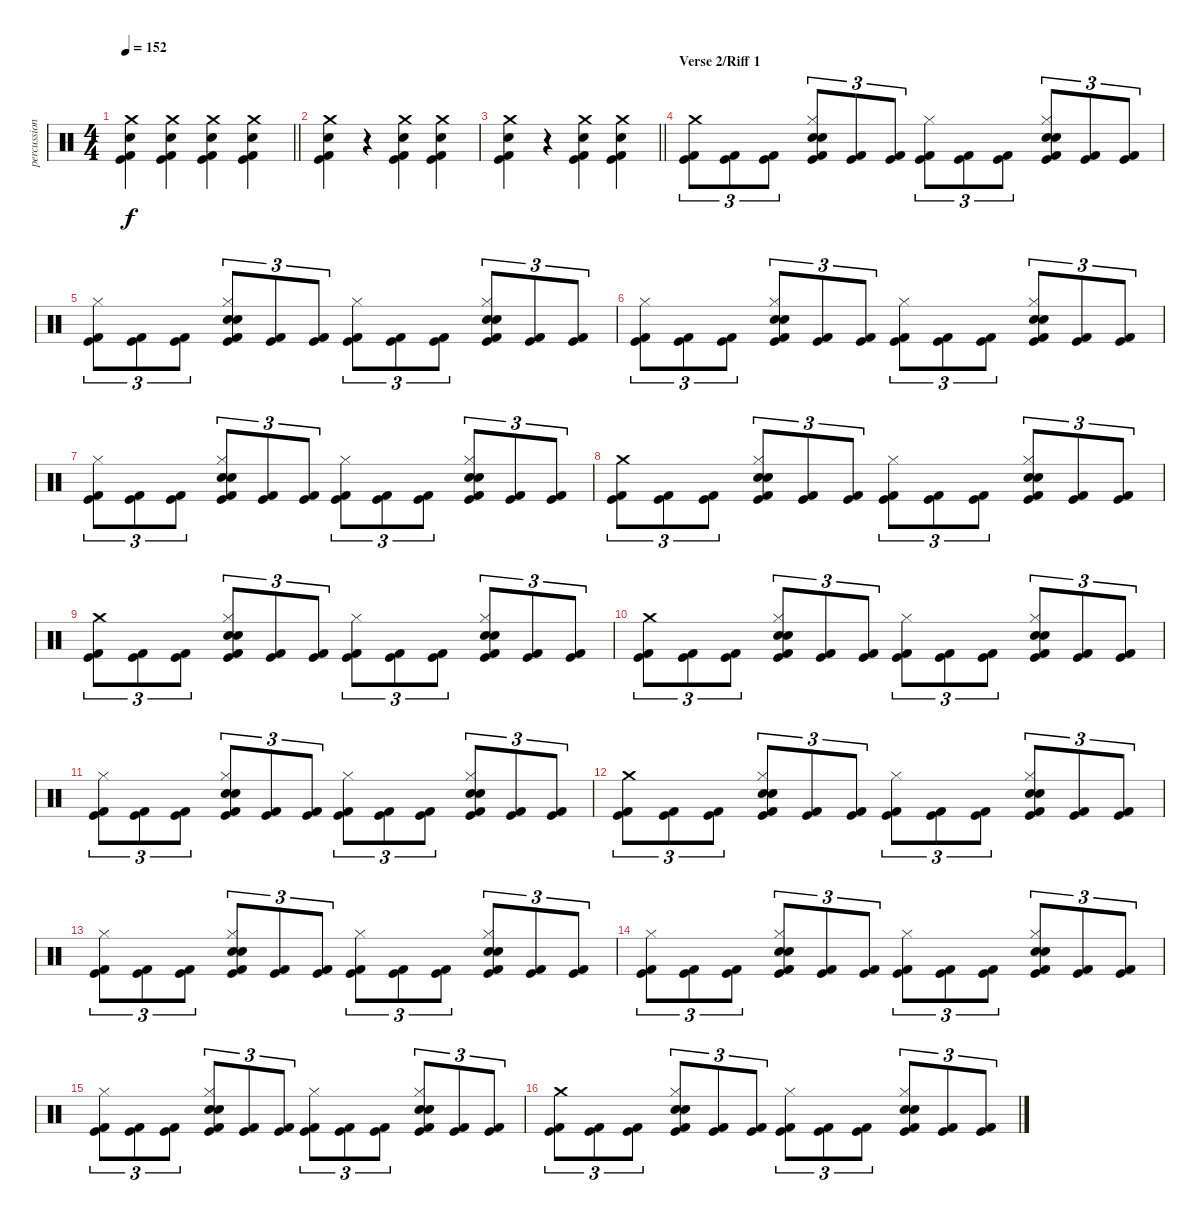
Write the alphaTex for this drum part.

\track ("percussion" "percussion") {instrument percussion}
\staff {score}
\articulation defaults
\ts (4 4)
\tempo 152
\clef neutral
\barLineRight lightlight
\ks c
("Crash medium (hit)" "Electric Snare (hit)" "Kick (hit) 2" "Kick (hit)").4{dy f} ("Crash medium (hit)" "Electric Snare (hit)" "Kick (hit) 2" "Kick (hit)").4 ("Crash medium (hit)" "Electric Snare (hit)" "Kick (hit) 2" "Kick (hit)").4 ("Crash medium (hit)" "Electric Snare (hit)" "Kick (hit) 2" "Kick (hit)").4 |
("Crash medium (hit)" "Electric Snare (hit)" "Kick (hit)" "Kick (hit) 2").4 r.4 ("Crash medium (hit)" "Electric Snare (hit)" "Kick (hit)" "Kick (hit) 2").4 ("Crash medium (hit)" "Electric Snare (hit)" "Kick (hit)" "Kick (hit) 2").4 |
\barLineRight lightlight
("Crash medium (hit)" "Electric Snare (hit)" "Kick (hit)" "Kick (hit) 2").4 r.4 ("Crash medium (hit)" "Electric Snare (hit)" "Kick (hit) 2" "Kick (hit)").4 ("Crash medium (hit)" "Electric Snare (hit)" "Kick (hit) 2" "Kick (hit)").4 |
\section ("" "Verse 2/Riff 1")
("Crash medium (hit)" "Kick (hit)" "Kick (hit) 2").8{tu (3 2)} ("Kick (hit)" "Kick (hit) 2").8{tu (3 2)} ("Kick (hit)" "Kick (hit) 2").8{tu (3 2)} ("Hi-Hat (closed)" "Electric Snare (hit)" "Snare (hit) 2" "Kick (hit)" "Kick (hit) 2").8{tu (3 2)} ("Kick (hit)" "Kick (hit) 2").8{tu (3 2)} ("Kick (hit)" "Kick (hit) 2").8{tu (3 2)} ("Hi-Hat (closed)" "Kick (hit)" "Kick (hit) 2").8{tu (3 2)} ("Kick (hit)" "Kick (hit) 2").8{tu (3 2)} ("Kick (hit)" "Kick (hit) 2").8{tu (3 2)} ("Hi-Hat (closed)" "Electric Snare (hit)" "Snare (hit) 2" "Kick (hit)" "Kick (hit) 2").8{tu (3 2)} ("Kick (hit)" "Kick (hit) 2").8{tu (3 2)} ("Kick (hit)" "Kick (hit) 2").8{tu (3 2)} |
("Hi-Hat (closed)" "Kick (hit)" "Kick (hit) 2").8{tu (3 2)} ("Kick (hit)" "Kick (hit) 2").8{tu (3 2)} ("Kick (hit)" "Kick (hit) 2").8{tu (3 2)} ("Hi-Hat (closed)" "Electric Snare (hit)" "Snare (hit) 2" "Kick (hit)" "Kick (hit) 2").8{tu (3 2)} ("Kick (hit)" "Kick (hit) 2").8{tu (3 2)} ("Kick (hit)" "Kick (hit) 2").8{tu (3 2)} ("Hi-Hat (closed)" "Kick (hit)" "Kick (hit) 2").8{tu (3 2)} ("Kick (hit)" "Kick (hit) 2").8{tu (3 2)} ("Kick (hit)" "Kick (hit) 2").8{tu (3 2)} ("Hi-Hat (closed)" "Electric Snare (hit)" "Snare (hit) 2" "Kick (hit)" "Kick (hit) 2").8{tu (3 2)} ("Kick (hit)" "Kick (hit) 2").8{tu (3 2)} ("Kick (hit)" "Kick (hit) 2").8{tu (3 2)} |
("Hi-Hat (closed)" "Kick (hit)" "Kick (hit) 2").8{tu (3 2)} ("Kick (hit)" "Kick (hit) 2").8{tu (3 2)} ("Kick (hit)" "Kick (hit) 2").8{tu (3 2)} ("Hi-Hat (closed)" "Electric Snare (hit)" "Snare (hit) 2" "Kick (hit)" "Kick (hit) 2").8{tu (3 2)} ("Kick (hit)" "Kick (hit) 2").8{tu (3 2)} ("Kick (hit)" "Kick (hit) 2").8{tu (3 2)} ("Hi-Hat (closed)" "Kick (hit)" "Kick (hit) 2").8{tu (3 2)} ("Kick (hit)" "Kick (hit) 2").8{tu (3 2)} ("Kick (hit)" "Kick (hit) 2").8{tu (3 2)} ("Hi-Hat (closed)" "Electric Snare (hit)" "Snare (hit) 2" "Kick (hit)" "Kick (hit) 2").8{tu (3 2)} ("Kick (hit)" "Kick (hit) 2").8{tu (3 2)} ("Kick (hit)" "Kick (hit) 2").8{tu (3 2)} |
("Hi-Hat (closed)" "Kick (hit)" "Kick (hit) 2").8{tu (3 2)} ("Kick (hit)" "Kick (hit) 2").8{tu (3 2)} ("Kick (hit)" "Kick (hit) 2").8{tu (3 2)} ("Hi-Hat (closed)" "Electric Snare (hit)" "Snare (hit) 2" "Kick (hit)" "Kick (hit) 2").8{tu (3 2)} ("Kick (hit)" "Kick (hit) 2").8{tu (3 2)} ("Kick (hit)" "Kick (hit) 2").8{tu (3 2)} ("Hi-Hat (closed)" "Kick (hit)" "Kick (hit) 2").8{tu (3 2)} ("Kick (hit)" "Kick (hit) 2").8{tu (3 2)} ("Kick (hit)" "Kick (hit) 2").8{tu (3 2)} ("Hi-Hat (closed)" "Electric Snare (hit)" "Snare (hit) 2" "Kick (hit)" "Kick (hit) 2").8{tu (3 2)} ("Kick (hit)" "Kick (hit) 2").8{tu (3 2)} ("Kick (hit)" "Kick (hit) 2").8{tu (3 2)} |
("Crash medium (hit)" "Kick (hit)" "Kick (hit) 2").8{tu (3 2)} ("Kick (hit)" "Kick (hit) 2").8{tu (3 2)} ("Kick (hit)" "Kick (hit) 2").8{tu (3 2)} ("Hi-Hat (closed)" "Electric Snare (hit)" "Snare (hit) 2" "Kick (hit)" "Kick (hit) 2").8{tu (3 2)} ("Kick (hit)" "Kick (hit) 2").8{tu (3 2)} ("Kick (hit)" "Kick (hit) 2").8{tu (3 2)} ("Hi-Hat (closed)" "Kick (hit)" "Kick (hit) 2").8{tu (3 2)} ("Kick (hit)" "Kick (hit) 2").8{tu (3 2)} ("Kick (hit)" "Kick (hit) 2").8{tu (3 2)} ("Hi-Hat (closed)" "Electric Snare (hit)" "Snare (hit) 2" "Kick (hit)" "Kick (hit) 2").8{tu (3 2)} ("Kick (hit)" "Kick (hit) 2").8{tu (3 2)} ("Kick (hit)" "Kick (hit) 2").8{tu (3 2)} |
("Crash medium (hit)" "Kick (hit)" "Kick (hit) 2").8{tu (3 2)} ("Kick (hit)" "Kick (hit) 2").8{tu (3 2)} ("Kick (hit)" "Kick (hit) 2").8{tu (3 2)} ("Hi-Hat (closed)" "Electric Snare (hit)" "Snare (hit) 2" "Kick (hit)" "Kick (hit) 2").8{tu (3 2)} ("Kick (hit)" "Kick (hit) 2").8{tu (3 2)} ("Kick (hit)" "Kick (hit) 2").8{tu (3 2)} ("Hi-Hat (closed)" "Kick (hit)" "Kick (hit) 2").8{tu (3 2)} ("Kick (hit)" "Kick (hit) 2").8{tu (3 2)} ("Kick (hit)" "Kick (hit) 2").8{tu (3 2)} ("Hi-Hat (closed)" "Electric Snare (hit)" "Snare (hit) 2" "Kick (hit)" "Kick (hit) 2").8{tu (3 2)} ("Kick (hit)" "Kick (hit) 2").8{tu (3 2)} ("Kick (hit)" "Kick (hit) 2").8{tu (3 2)} |
("Crash medium (hit)" "Kick (hit)" "Kick (hit) 2").8{tu (3 2)} ("Kick (hit)" "Kick (hit) 2").8{tu (3 2)} ("Kick (hit)" "Kick (hit) 2").8{tu (3 2)} ("Hi-Hat (closed)" "Electric Snare (hit)" "Snare (hit) 2" "Kick (hit)" "Kick (hit) 2").8{tu (3 2)} ("Kick (hit)" "Kick (hit) 2").8{tu (3 2)} ("Kick (hit)" "Kick (hit) 2").8{tu (3 2)} ("Hi-Hat (closed)" "Kick (hit)" "Kick (hit) 2").8{tu (3 2)} ("Kick (hit)" "Kick (hit) 2").8{tu (3 2)} ("Kick (hit)" "Kick (hit) 2").8{tu (3 2)} ("Hi-Hat (closed)" "Electric Snare (hit)" "Snare (hit) 2" "Kick (hit)" "Kick (hit) 2").8{tu (3 2)} ("Kick (hit)" "Kick (hit) 2").8{tu (3 2)} ("Kick (hit)" "Kick (hit) 2").8{tu (3 2)} |
("Hi-Hat (closed)" "Kick (hit)" "Kick (hit) 2").8{tu (3 2)} ("Kick (hit)" "Kick (hit) 2").8{tu (3 2)} ("Kick (hit)" "Kick (hit) 2").8{tu (3 2)} ("Hi-Hat (closed)" "Electric Snare (hit)" "Snare (hit) 2" "Kick (hit)" "Kick (hit) 2").8{tu (3 2)} ("Kick (hit)" "Kick (hit) 2").8{tu (3 2)} ("Kick (hit)" "Kick (hit) 2").8{tu (3 2)} ("Hi-Hat (closed)" "Kick (hit)" "Kick (hit) 2").8{tu (3 2)} ("Kick (hit)" "Kick (hit) 2").8{tu (3 2)} ("Kick (hit)" "Kick (hit) 2").8{tu (3 2)} ("Hi-Hat (closed)" "Electric Snare (hit)" "Snare (hit) 2" "Kick (hit)" "Kick (hit) 2").8{tu (3 2)} ("Kick (hit)" "Kick (hit) 2").8{tu (3 2)} ("Kick (hit)" "Kick (hit) 2").8{tu (3 2)} |
("Crash medium (hit)" "Kick (hit)" "Kick (hit) 2").8{tu (3 2)} ("Kick (hit)" "Kick (hit) 2").8{tu (3 2)} ("Kick (hit)" "Kick (hit) 2").8{tu (3 2)} ("Hi-Hat (closed)" "Electric Snare (hit)" "Snare (hit) 2" "Kick (hit)" "Kick (hit) 2").8{tu (3 2)} ("Kick (hit)" "Kick (hit) 2").8{tu (3 2)} ("Kick (hit)" "Kick (hit) 2").8{tu (3 2)} ("Hi-Hat (closed)" "Kick (hit)" "Kick (hit) 2").8{tu (3 2)} ("Kick (hit)" "Kick (hit) 2").8{tu (3 2)} ("Kick (hit)" "Kick (hit) 2").8{tu (3 2)} ("Hi-Hat (closed)" "Electric Snare (hit)" "Snare (hit) 2" "Kick (hit)" "Kick (hit) 2").8{tu (3 2)} ("Kick (hit)" "Kick (hit) 2").8{tu (3 2)} ("Kick (hit)" "Kick (hit) 2").8{tu (3 2)} |
("Hi-Hat (closed)" "Kick (hit)" "Kick (hit) 2").8{tu (3 2)} ("Kick (hit)" "Kick (hit) 2").8{tu (3 2)} ("Kick (hit)" "Kick (hit) 2").8{tu (3 2)} ("Hi-Hat (closed)" "Electric Snare (hit)" "Snare (hit) 2" "Kick (hit)" "Kick (hit) 2").8{tu (3 2)} ("Kick (hit)" "Kick (hit) 2").8{tu (3 2)} ("Kick (hit)" "Kick (hit) 2").8{tu (3 2)} ("Hi-Hat (closed)" "Kick (hit)" "Kick (hit) 2").8{tu (3 2)} ("Kick (hit)" "Kick (hit) 2").8{tu (3 2)} ("Kick (hit)" "Kick (hit) 2").8{tu (3 2)} ("Hi-Hat (closed)" "Electric Snare (hit)" "Snare (hit) 2" "Kick (hit)" "Kick (hit) 2").8{tu (3 2)} ("Kick (hit)" "Kick (hit) 2").8{tu (3 2)} ("Kick (hit)" "Kick (hit) 2").8{tu (3 2)} |
("Hi-Hat (closed)" "Kick (hit)" "Kick (hit) 2").8{tu (3 2)} ("Kick (hit)" "Kick (hit) 2").8{tu (3 2)} ("Kick (hit)" "Kick (hit) 2").8{tu (3 2)} ("Hi-Hat (closed)" "Electric Snare (hit)" "Snare (hit) 2" "Kick (hit)" "Kick (hit) 2").8{tu (3 2)} ("Kick (hit)" "Kick (hit) 2").8{tu (3 2)} ("Kick (hit)" "Kick (hit) 2").8{tu (3 2)} ("Hi-Hat (closed)" "Kick (hit)" "Kick (hit) 2").8{tu (3 2)} ("Kick (hit)" "Kick (hit) 2").8{tu (3 2)} ("Kick (hit)" "Kick (hit) 2").8{tu (3 2)} ("Hi-Hat (closed)" "Electric Snare (hit)" "Snare (hit) 2" "Kick (hit)" "Kick (hit) 2").8{tu (3 2)} ("Kick (hit)" "Kick (hit) 2").8{tu (3 2)} ("Kick (hit)" "Kick (hit) 2").8{tu (3 2)} |
("Hi-Hat (closed)" "Kick (hit)" "Kick (hit) 2").8{tu (3 2)} ("Kick (hit)" "Kick (hit) 2").8{tu (3 2)} ("Kick (hit)" "Kick (hit) 2").8{tu (3 2)} ("Hi-Hat (closed)" "Electric Snare (hit)" "Snare (hit) 2" "Kick (hit)" "Kick (hit) 2").8{tu (3 2)} ("Kick (hit)" "Kick (hit) 2").8{tu (3 2)} ("Kick (hit)" "Kick (hit) 2").8{tu (3 2)} ("Hi-Hat (closed)" "Kick (hit)" "Kick (hit) 2").8{tu (3 2)} ("Kick (hit)" "Kick (hit) 2").8{tu (3 2)} ("Kick (hit)" "Kick (hit) 2").8{tu (3 2)} ("Hi-Hat (closed)" "Electric Snare (hit)" "Snare (hit) 2" "Kick (hit)" "Kick (hit) 2").8{tu (3 2)} ("Kick (hit)" "Kick (hit) 2").8{tu (3 2)} ("Kick (hit)" "Kick (hit) 2").8{tu (3 2)} |
("Crash medium (hit)" "Kick (hit)" "Kick (hit) 2").8{tu (3 2)} ("Kick (hit)" "Kick (hit) 2").8{tu (3 2)} ("Kick (hit)" "Kick (hit) 2").8{tu (3 2)} ("Hi-Hat (closed)" "Electric Snare (hit)" "Snare (hit) 2" "Kick (hit)" "Kick (hit) 2").8{tu (3 2)} ("Kick (hit)" "Kick (hit) 2").8{tu (3 2)} ("Kick (hit)" "Kick (hit) 2").8{tu (3 2)} ("Hi-Hat (closed)" "Kick (hit)" "Kick (hit) 2").8{tu (3 2)} ("Kick (hit)" "Kick (hit) 2").8{tu (3 2)} ("Kick (hit)" "Kick (hit) 2").8{tu (3 2)} ("Hi-Hat (closed)" "Electric Snare (hit)" "Snare (hit) 2" "Kick (hit)" "Kick (hit) 2").8{tu (3 2)} ("Kick (hit)" "Kick (hit) 2").8{tu (3 2)} ("Kick (hit)" "Kick (hit) 2").8{tu (3 2)}
